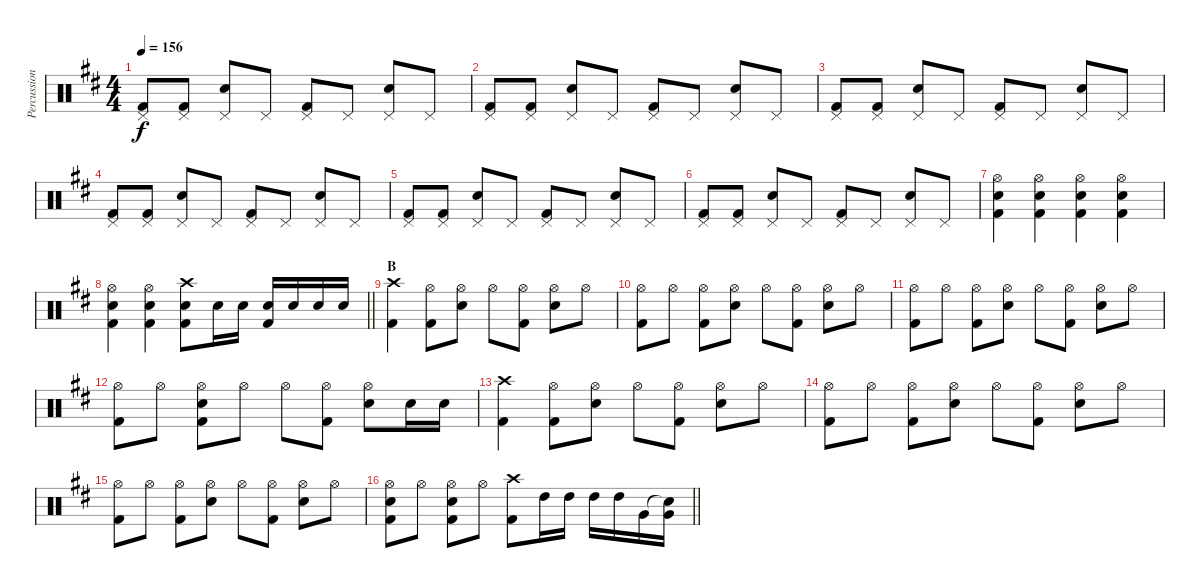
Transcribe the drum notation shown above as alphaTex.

\track ("Percussion" "Percussion") {instrument percussion}
\staff {score}
\articulation defaults
\ts (4 4)
\tempo 156
\clef neutral
\ks d
("Pedal Hi-Hat (hit)" "Kick (hit) 2").8{dy f} ("Pedal Hi-Hat (hit)" "Kick (hit) 2").8 ("Pedal Hi-Hat (hit)" "Electric Snare (hit)").8 "Pedal Hi-Hat (hit)".8 ("Pedal Hi-Hat (hit)" "Kick (hit) 2").8 "Pedal Hi-Hat (hit)".8 ("Pedal Hi-Hat (hit)" "Electric Snare (hit)").8 "Pedal Hi-Hat (hit)".8 |
("Pedal Hi-Hat (hit)" "Kick (hit) 2").8 ("Pedal Hi-Hat (hit)" "Kick (hit) 2").8 ("Pedal Hi-Hat (hit)" "Electric Snare (hit)").8 "Pedal Hi-Hat (hit)".8 ("Pedal Hi-Hat (hit)" "Kick (hit) 2").8 "Pedal Hi-Hat (hit)".8 ("Pedal Hi-Hat (hit)" "Electric Snare (hit)").8 "Pedal Hi-Hat (hit)".8 |
("Pedal Hi-Hat (hit)" "Kick (hit) 2").8 ("Pedal Hi-Hat (hit)" "Kick (hit) 2").8 ("Pedal Hi-Hat (hit)" "Electric Snare (hit)").8 "Pedal Hi-Hat (hit)".8 ("Pedal Hi-Hat (hit)" "Kick (hit) 2").8 "Pedal Hi-Hat (hit)".8 ("Pedal Hi-Hat (hit)" "Electric Snare (hit)").8 "Pedal Hi-Hat (hit)".8 |
("Pedal Hi-Hat (hit)" "Kick (hit) 2").8 ("Pedal Hi-Hat (hit)" "Kick (hit) 2").8 ("Pedal Hi-Hat (hit)" "Electric Snare (hit)").8 "Pedal Hi-Hat (hit)".8 ("Pedal Hi-Hat (hit)" "Kick (hit) 2").8 "Pedal Hi-Hat (hit)".8 ("Pedal Hi-Hat (hit)" "Electric Snare (hit)").8 "Pedal Hi-Hat (hit)".8 |
("Pedal Hi-Hat (hit)" "Kick (hit) 2").8 ("Pedal Hi-Hat (hit)" "Kick (hit) 2").8 ("Pedal Hi-Hat (hit)" "Electric Snare (hit)").8 "Pedal Hi-Hat (hit)".8 ("Pedal Hi-Hat (hit)" "Kick (hit) 2").8 "Pedal Hi-Hat (hit)".8 ("Pedal Hi-Hat (hit)" "Electric Snare (hit)").8 "Pedal Hi-Hat (hit)".8 |
("Pedal Hi-Hat (hit)" "Kick (hit) 2").8 ("Pedal Hi-Hat (hit)" "Kick (hit) 2").8 ("Pedal Hi-Hat (hit)" "Electric Snare (hit)").8 "Pedal Hi-Hat (hit)".8 ("Pedal Hi-Hat (hit)" "Kick (hit) 2").8 "Pedal Hi-Hat (hit)".8 ("Pedal Hi-Hat (hit)" "Electric Snare (hit)").8 "Pedal Hi-Hat (hit)".8 |
("Hi-Hat (open)" "Kick (hit) 2" "Electric Snare (hit)").4 ("Hi-Hat (open)" "Kick (hit) 2" "Electric Snare (hit)").4 ("Hi-Hat (open)" "Kick (hit) 2" "Electric Snare (hit)").4 ("Hi-Hat (open)" "Kick (hit) 2" "Electric Snare (hit)").4 |
\barLineRight lightlight
("Hi-Hat (open)" "Kick (hit) 2" "Electric Snare (hit)").4 ("Hi-Hat (open)" "Kick (hit) 2" "Electric Snare (hit)").4 ("Crash high (hit)" "Electric Snare (hit)" "Kick (hit) 2").8 "Electric Snare (hit)".16 "Electric Snare (hit)".16 ("Electric Snare (hit)" "Kick (hit) 2").16 "Electric Snare (hit)".16 "Electric Snare (hit)".16 "Electric Snare (hit)".16 |
\section ("" "B")
("Crash high (hit)" "Kick (hit) 2").4 ("Hi-Hat (open)" "Kick (hit) 2").8 ("Hi-Hat (open)" "Electric Snare (hit)").8 "Hi-Hat (open)".8 ("Hi-Hat (open)" "Kick (hit) 2").8 ("Hi-Hat (open)" "Electric Snare (hit)").8 "Hi-Hat (open)".8 |
("Hi-Hat (open)" "Kick (hit) 2").8 "Hi-Hat (open)".8 ("Hi-Hat (open)" "Kick (hit) 2").8 ("Hi-Hat (open)" "Electric Snare (hit)").8 "Hi-Hat (open)".8 ("Hi-Hat (open)" "Kick (hit) 2").8 ("Hi-Hat (open)" "Electric Snare (hit)").8 "Hi-Hat (open)".8 |
("Hi-Hat (open)" "Kick (hit) 2").8 "Hi-Hat (open)".8 ("Hi-Hat (open)" "Kick (hit) 2").8 ("Hi-Hat (open)" "Electric Snare (hit)").8 "Hi-Hat (open)".8 ("Hi-Hat (open)" "Kick (hit) 2").8 ("Hi-Hat (open)" "Electric Snare (hit)").8 "Hi-Hat (open)".8 |
("Hi-Hat (open)" "Kick (hit) 2").8 "Hi-Hat (open)".8 ("Hi-Hat (open)" "Electric Snare (hit)" "Kick (hit) 2").8 "Hi-Hat (open)".8 "Hi-Hat (open)".8 ("Hi-Hat (open)" "Kick (hit) 2").8 ("Hi-Hat (open)" "Electric Snare (hit)").8 "Electric Snare (hit)".16 "Electric Snare (hit)".16 |
("Crash high (hit)" "Kick (hit) 2").4 ("Hi-Hat (open)" "Kick (hit) 2").8 ("Hi-Hat (open)" "Electric Snare (hit)").8 "Hi-Hat (open)".8 ("Hi-Hat (open)" "Kick (hit) 2").8 ("Hi-Hat (open)" "Electric Snare (hit)").8 "Hi-Hat (open)".8 |
("Hi-Hat (open)" "Kick (hit) 2").8 "Hi-Hat (open)".8 ("Hi-Hat (open)" "Kick (hit) 2").8 ("Hi-Hat (open)" "Electric Snare (hit)").8 "Hi-Hat (open)".8 ("Hi-Hat (open)" "Kick (hit) 2").8 ("Hi-Hat (open)" "Electric Snare (hit)").8 "Hi-Hat (open)".8 |
("Hi-Hat (open)" "Kick (hit) 2").8 "Hi-Hat (open)".8 ("Hi-Hat (open)" "Kick (hit) 2").8 ("Hi-Hat (open)" "Electric Snare (hit)").8 "Hi-Hat (open)".8 ("Hi-Hat (open)" "Kick (hit) 2").8 ("Hi-Hat (open)" "Electric Snare (hit)").8 "Hi-Hat (open)".8 |
\barLineRight lightlight
("Hi-Hat (open)" "Electric Snare (hit)" "Kick (hit) 2").8 "Hi-Hat (open)".8 ("Hi-Hat (open)" "Electric Snare (hit)" "Kick (hit) 2").8 "Hi-Hat (open)".8 ("Crash high (hit)" "Kick (hit) 2").8 "High Tom (hit)".16 "High Tom (hit)".16 "High Tom (hit)".16 "High Tom (hit)".16 "Very Low Tom (hit)".16 ("Snare (hit)"{t} "Very Low Tom (hit)").16
